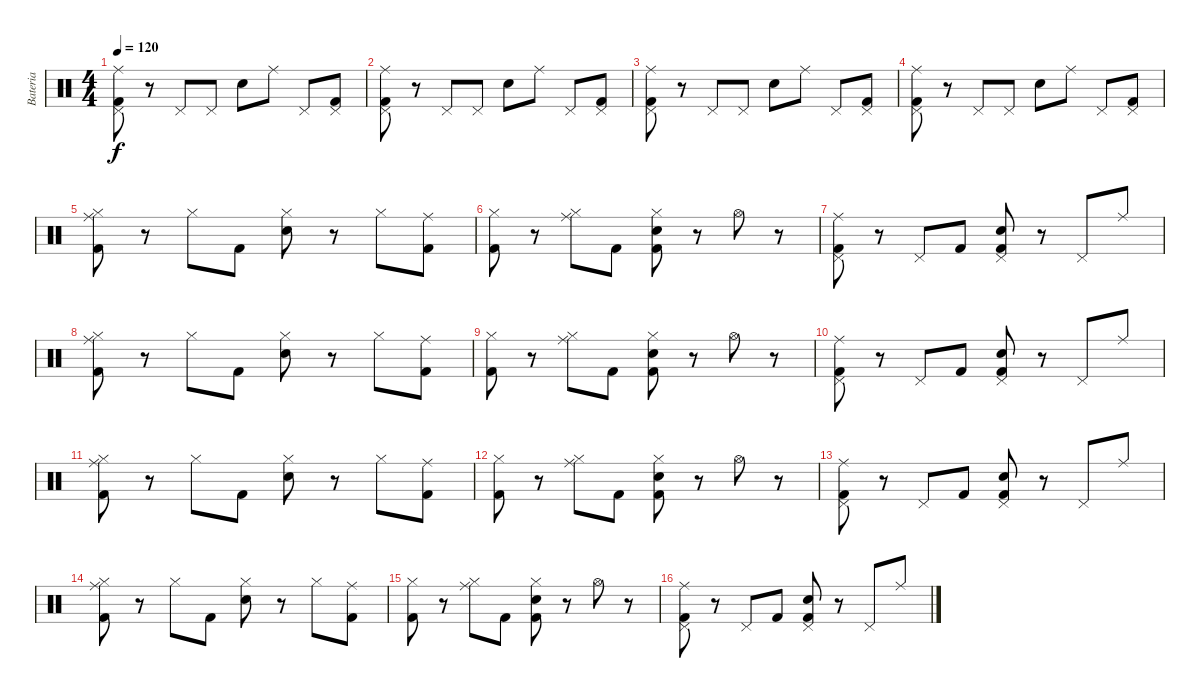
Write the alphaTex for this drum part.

\track ("Bateria" "Bateria") {instrument percussion}
\staff {score}
\articulation defaults
\ts (4 4)
\tempo 120
\clef neutral
\ks c
("Kick (hit) 2" "Pedal Hi-Hat (hit)" "Ride (middle)").8{dy f} r.8 "Pedal Hi-Hat (hit)".8 "Pedal Hi-Hat (hit)".8 "Snare (hit) 2".8 "Ride (middle)".8 "Pedal Hi-Hat (hit)".8 ("Kick (hit) 2" "Pedal Hi-Hat (hit)").8 |
("Kick (hit) 2" "Pedal Hi-Hat (hit)" "Ride (middle)").8 r.8 "Pedal Hi-Hat (hit)".8 "Pedal Hi-Hat (hit)".8 "Snare (hit) 2".8 "Ride (middle)".8 "Pedal Hi-Hat (hit)".8 ("Kick (hit) 2" "Pedal Hi-Hat (hit)").8 |
("Kick (hit) 2" "Pedal Hi-Hat (hit)" "Ride (middle)").8 r.8 "Pedal Hi-Hat (hit)".8 "Pedal Hi-Hat (hit)".8 "Snare (hit) 2".8 "Ride (middle)".8 "Pedal Hi-Hat (hit)".8 ("Kick (hit) 2" "Pedal Hi-Hat (hit)").8 |
("Kick (hit) 2" "Pedal Hi-Hat (hit)" "Ride (middle)").8 r.8 "Pedal Hi-Hat (hit)".8 "Pedal Hi-Hat (hit)".8 "Snare (hit) 2".8 "Ride (middle)".8 "Pedal Hi-Hat (hit)".8 ("Kick (hit) 2" "Pedal Hi-Hat (hit)").8 |
("Kick (hit) 2" "Hi-Hat (closed)" "Ride (middle)").8 r.8 "Hi-Hat (closed)".8 "Kick (hit) 2".8 ("Hi-Hat (closed)" "Snare (hit) 2").8 r.8 "Hi-Hat (closed)".8 ("Kick (hit) 2" "Ride (middle)").8 |
("Kick (hit) 2" "Hi-Hat (closed)").8 r.8 ("Hi-Hat (closed)" "Ride (middle)").8 "Kick (hit) 2".8 ("Kick (hit) 2" "Hi-Hat (closed)" "Snare (hit) 2").8 r.8 "Hi-Hat (open)".8 r.8 |
("Kick (hit) 2" "Pedal Hi-Hat (hit)" "Ride (middle)").8 r.8 "Pedal Hi-Hat (hit)".8 "Kick (hit) 2".8 ("Kick (hit) 2" "Pedal Hi-Hat (hit)" "Snare (hit) 2").8 r.8 "Pedal Hi-Hat (hit)".8 "Ride (middle)".8 |
("Kick (hit) 2" "Hi-Hat (closed)" "Ride (middle)").8 r.8 "Hi-Hat (closed)".8 "Kick (hit) 2".8 ("Hi-Hat (closed)" "Snare (hit) 2").8 r.8 "Hi-Hat (closed)".8 ("Kick (hit) 2" "Ride (middle)").8 |
("Kick (hit) 2" "Hi-Hat (closed)").8 r.8 ("Hi-Hat (closed)" "Ride (middle)").8 "Kick (hit) 2".8 ("Kick (hit) 2" "Hi-Hat (closed)" "Snare (hit) 2").8 r.8 "Hi-Hat (open)".8 r.8 |
("Kick (hit) 2" "Pedal Hi-Hat (hit)" "Ride (middle)").8 r.8 "Pedal Hi-Hat (hit)".8 "Kick (hit) 2".8 ("Kick (hit) 2" "Pedal Hi-Hat (hit)" "Snare (hit) 2").8 r.8 "Pedal Hi-Hat (hit)".8 "Ride (middle)".8 |
("Kick (hit) 2" "Hi-Hat (closed)" "Ride (middle)").8 r.8 "Hi-Hat (closed)".8 "Kick (hit) 2".8 ("Hi-Hat (closed)" "Snare (hit) 2").8 r.8 "Hi-Hat (closed)".8 ("Kick (hit) 2" "Ride (middle)").8 |
("Kick (hit) 2" "Hi-Hat (closed)").8 r.8 ("Hi-Hat (closed)" "Ride (middle)").8 "Kick (hit) 2".8 ("Kick (hit) 2" "Hi-Hat (closed)" "Snare (hit) 2").8 r.8 "Hi-Hat (open)".8 r.8 |
("Kick (hit) 2" "Pedal Hi-Hat (hit)" "Ride (middle)").8 r.8 "Pedal Hi-Hat (hit)".8 "Kick (hit) 2".8 ("Kick (hit) 2" "Pedal Hi-Hat (hit)" "Snare (hit) 2").8 r.8 "Pedal Hi-Hat (hit)".8 "Ride (middle)".8 |
("Kick (hit) 2" "Hi-Hat (closed)" "Ride (middle)").8 r.8 "Hi-Hat (closed)".8 "Kick (hit) 2".8 ("Hi-Hat (closed)" "Snare (hit) 2").8 r.8 "Hi-Hat (closed)".8 ("Kick (hit) 2" "Ride (middle)").8 |
("Kick (hit) 2" "Hi-Hat (closed)").8 r.8 ("Hi-Hat (closed)" "Ride (middle)").8 "Kick (hit) 2".8 ("Kick (hit) 2" "Hi-Hat (closed)" "Snare (hit) 2").8 r.8 "Hi-Hat (open)".8 r.8 |
("Kick (hit) 2" "Pedal Hi-Hat (hit)" "Ride (middle)").8 r.8 "Pedal Hi-Hat (hit)".8 "Kick (hit) 2".8 ("Kick (hit) 2" "Pedal Hi-Hat (hit)" "Snare (hit) 2").8 r.8 "Pedal Hi-Hat (hit)".8 "Ride (middle)".8
